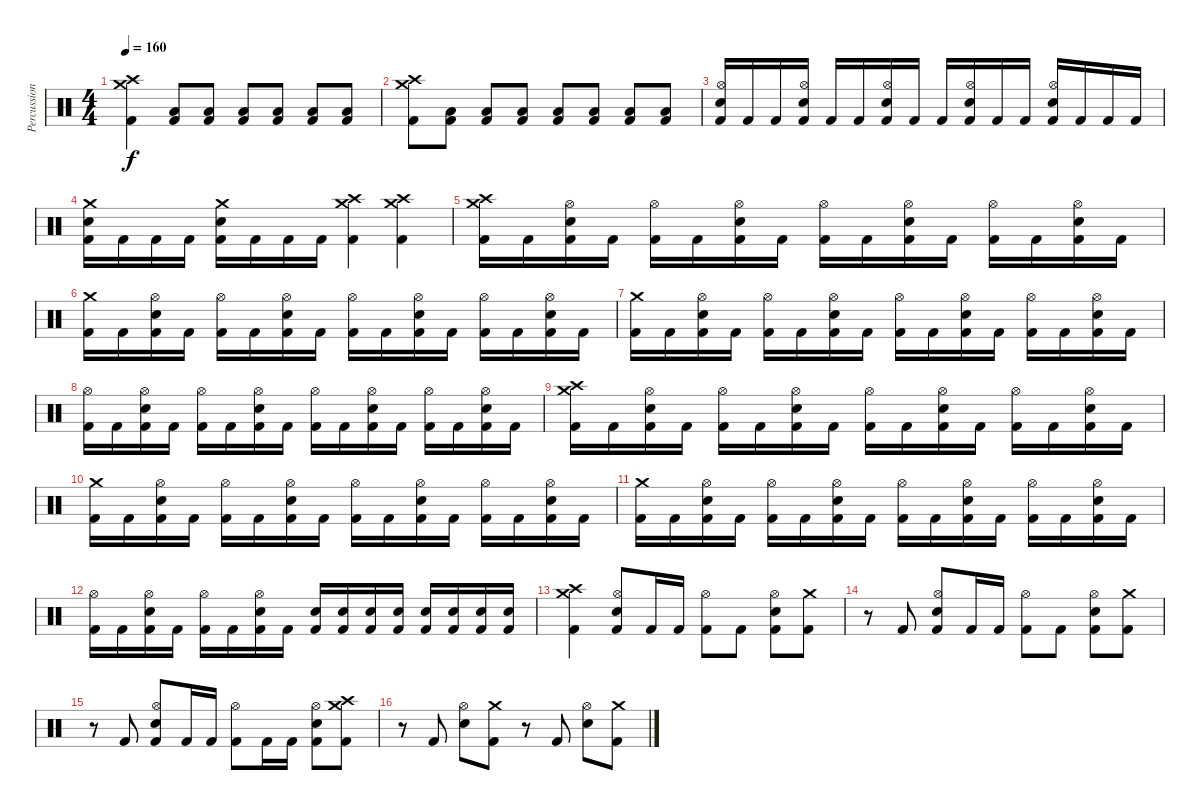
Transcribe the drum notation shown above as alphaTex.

\track ("Percussion" "Percussion") {instrument percussion}
\staff {score}
\articulation defaults
\ts (4 4)
\tempo 160
\clef neutral
\ks c
("Crash medium (hit)" "Crash high (hit)" "Kick (hit) 2").4{dy f} ("Low Floor Tom (hit)" "Kick (hit) 2").8 ("Low Floor Tom (hit)" "Kick (hit) 2").8 ("Low Floor Tom (hit)" "Kick (hit) 2").8 ("Low Floor Tom (hit)" "Kick (hit) 2").8 ("Low Floor Tom (hit)" "Kick (hit) 2").8 ("Low Floor Tom (hit)" "Kick (hit) 2").8 |
("Crash medium (hit)" "Crash high (hit)" "Kick (hit) 2").8 ("Low Floor Tom (hit)" "Kick (hit) 2").8 ("Low Floor Tom (hit)" "Kick (hit) 2").8 ("Low Floor Tom (hit)" "Kick (hit) 2").8 ("Low Floor Tom (hit)" "Kick (hit) 2").8 ("Low Floor Tom (hit)" "Kick (hit) 2").8 ("Low Floor Tom (hit)" "Kick (hit) 2").8 ("Low Floor Tom (hit)" "Kick (hit) 2").8 |
("Hi-Hat (open)" "Electric Snare (hit)" "Kick (hit) 2").16 "Kick (hit) 2".16 "Kick (hit) 2".16 ("Hi-Hat (open)" "Electric Snare (hit)" "Kick (hit) 2").16 "Kick (hit) 2".16 "Kick (hit) 2".16 ("Hi-Hat (open)" "Electric Snare (hit)" "Kick (hit) 2").16 "Kick (hit) 2".16 "Kick (hit) 2".16 ("Hi-Hat (open)" "Electric Snare (hit)" "Kick (hit) 2").16 "Kick (hit) 2".16 "Kick (hit) 2".16 ("Hi-Hat (open)" "Electric Snare (hit)" "Kick (hit) 2").16 "Kick (hit) 2".16 "Kick (hit) 2".16 "Kick (hit) 2".16 |
("Crash medium (hit)" "Electric Snare (hit)" "Kick (hit) 2").16 "Kick (hit) 2".16 "Kick (hit) 2".16 "Kick (hit) 2".16 ("Crash medium (hit)" "Electric Snare (hit)" "Kick (hit) 2").16 "Kick (hit) 2".16 "Kick (hit) 2".16 "Kick (hit) 2".16 ("Crash high (hit)" "Crash medium (hit)" "Kick (hit) 2").4 ("Crash high (hit)" "Crash medium (hit)" "Kick (hit) 2").4 |
("Crash high (hit)" "Crash medium (hit)" "Kick (hit) 2").16 "Kick (hit) 2".16 ("Hi-Hat (open)" "Electric Snare (hit)" "Kick (hit) 2").16 "Kick (hit) 2".16 ("Hi-Hat (open)" "Kick (hit) 2").16 "Kick (hit) 2".16 ("Hi-Hat (open)" "Electric Snare (hit)" "Kick (hit) 2").16 "Kick (hit) 2".16 ("Hi-Hat (open)" "Kick (hit) 2").16 "Kick (hit) 2".16 ("Hi-Hat (open)" "Electric Snare (hit)" "Kick (hit) 2").16 "Kick (hit) 2".16 ("Hi-Hat (open)" "Kick (hit) 2").16 "Kick (hit) 2".16 ("Hi-Hat (open)" "Electric Snare (hit)" "Kick (hit) 2").16 "Kick (hit) 2".16 |
("Crash medium (hit)" "Kick (hit) 2").16 "Kick (hit) 2".16 ("Hi-Hat (open)" "Electric Snare (hit)" "Kick (hit) 2").16 "Kick (hit) 2".16 ("Hi-Hat (open)" "Kick (hit) 2").16 "Kick (hit) 2".16 ("Hi-Hat (open)" "Electric Snare (hit)" "Kick (hit) 2").16 "Kick (hit) 2".16 ("Hi-Hat (open)" "Kick (hit) 2").16 "Kick (hit) 2".16 ("Hi-Hat (open)" "Electric Snare (hit)" "Kick (hit) 2").16 "Kick (hit) 2".16 ("Hi-Hat (open)" "Kick (hit) 2").16 "Kick (hit) 2".16 ("Hi-Hat (open)" "Electric Snare (hit)" "Kick (hit) 2").16 "Kick (hit) 2".16 |
("Crash medium (hit)" "Kick (hit) 2").16 "Kick (hit) 2".16 ("Hi-Hat (open)" "Electric Snare (hit)" "Kick (hit) 2").16 "Kick (hit) 2".16 ("Hi-Hat (open)" "Kick (hit) 2").16 "Kick (hit) 2".16 ("Hi-Hat (open)" "Electric Snare (hit)" "Kick (hit) 2").16 "Kick (hit) 2".16 ("Hi-Hat (open)" "Kick (hit) 2").16 "Kick (hit) 2".16 ("Hi-Hat (open)" "Electric Snare (hit)" "Kick (hit) 2").16 "Kick (hit) 2".16 ("Hi-Hat (open)" "Kick (hit) 2").16 "Kick (hit) 2".16 ("Hi-Hat (open)" "Electric Snare (hit)" "Kick (hit) 2").16 "Kick (hit) 2".16 |
("Hi-Hat (open)" "Kick (hit) 2").16 "Kick (hit) 2".16 ("Hi-Hat (open)" "Electric Snare (hit)" "Kick (hit) 2").16 "Kick (hit) 2".16 ("Hi-Hat (open)" "Kick (hit) 2").16 "Kick (hit) 2".16 ("Hi-Hat (open)" "Electric Snare (hit)" "Kick (hit) 2").16 "Kick (hit) 2".16 ("Hi-Hat (open)" "Kick (hit) 2").16 "Kick (hit) 2".16 ("Hi-Hat (open)" "Electric Snare (hit)" "Kick (hit) 2").16 "Kick (hit) 2".16 ("Hi-Hat (open)" "Kick (hit) 2").16 "Kick (hit) 2".16 ("Hi-Hat (open)" "Electric Snare (hit)" "Kick (hit) 2").16 "Kick (hit) 2".16 |
("Crash high (hit)" "Crash medium (hit)" "Kick (hit) 2").16 "Kick (hit) 2".16 ("Hi-Hat (open)" "Electric Snare (hit)" "Kick (hit) 2").16 "Kick (hit) 2".16 ("Hi-Hat (open)" "Kick (hit) 2").16 "Kick (hit) 2".16 ("Hi-Hat (open)" "Electric Snare (hit)" "Kick (hit) 2").16 "Kick (hit) 2".16 ("Hi-Hat (open)" "Kick (hit) 2").16 "Kick (hit) 2".16 ("Hi-Hat (open)" "Electric Snare (hit)" "Kick (hit) 2").16 "Kick (hit) 2".16 ("Hi-Hat (open)" "Kick (hit) 2").16 "Kick (hit) 2".16 ("Hi-Hat (open)" "Electric Snare (hit)" "Kick (hit) 2").16 "Kick (hit) 2".16 |
("Crash medium (hit)" "Kick (hit) 2").16 "Kick (hit) 2".16 ("Hi-Hat (open)" "Electric Snare (hit)" "Kick (hit) 2").16 "Kick (hit) 2".16 ("Hi-Hat (open)" "Kick (hit) 2").16 "Kick (hit) 2".16 ("Hi-Hat (open)" "Electric Snare (hit)" "Kick (hit) 2").16 "Kick (hit) 2".16 ("Hi-Hat (open)" "Kick (hit) 2").16 "Kick (hit) 2".16 ("Hi-Hat (open)" "Electric Snare (hit)" "Kick (hit) 2").16 "Kick (hit) 2".16 ("Hi-Hat (open)" "Kick (hit) 2").16 "Kick (hit) 2".16 ("Hi-Hat (open)" "Electric Snare (hit)" "Kick (hit) 2").16 "Kick (hit) 2".16 |
("Crash medium (hit)" "Kick (hit) 2").16 "Kick (hit) 2".16 ("Hi-Hat (open)" "Electric Snare (hit)" "Kick (hit) 2").16 "Kick (hit) 2".16 ("Hi-Hat (open)" "Kick (hit) 2").16 "Kick (hit) 2".16 ("Hi-Hat (open)" "Electric Snare (hit)" "Kick (hit) 2").16 "Kick (hit) 2".16 ("Hi-Hat (open)" "Kick (hit) 2").16 "Kick (hit) 2".16 ("Hi-Hat (open)" "Electric Snare (hit)" "Kick (hit) 2").16 "Kick (hit) 2".16 ("Hi-Hat (open)" "Kick (hit) 2").16 "Kick (hit) 2".16 ("Hi-Hat (open)" "Electric Snare (hit)" "Kick (hit) 2").16 "Kick (hit) 2".16 |
("Hi-Hat (open)" "Kick (hit) 2").16 "Kick (hit) 2".16 ("Hi-Hat (open)" "Electric Snare (hit)" "Kick (hit) 2").16 "Kick (hit) 2".16 ("Hi-Hat (open)" "Kick (hit) 2").16 "Kick (hit) 2".16 ("Hi-Hat (open)" "Electric Snare (hit)" "Kick (hit) 2").16 "Kick (hit) 2".16 ("Electric Snare (hit)" "Kick (hit) 2").16 ("Electric Snare (hit)" "Kick (hit) 2").16 ("Electric Snare (hit)" "Kick (hit) 2").16 ("Electric Snare (hit)" "Kick (hit) 2").16 ("Electric Snare (hit)" "Kick (hit) 2").16 ("Electric Snare (hit)" "Kick (hit) 2").16 ("Electric Snare (hit)" "Kick (hit) 2").16 ("Electric Snare (hit)" "Kick (hit) 2").16 |
("Crash medium (hit)" "Crash high (hit)" "Kick (hit) 2").4 ("Hi-Hat (open)" "Electric Snare (hit)" "Kick (hit) 2").8 "Kick (hit) 2".16 "Kick (hit) 2".16 ("Hi-Hat (open)" "Kick (hit) 2").8 "Kick (hit) 2".8 ("Hi-Hat (open)" "Electric Snare (hit)" "Kick (hit) 2").8 ("Crash medium (hit)" "Kick (hit) 2").8 |
r.8 "Kick (hit) 2".8 ("Hi-Hat (open)" "Electric Snare (hit)" "Kick (hit) 2").8 "Kick (hit) 2".16 "Kick (hit) 2".16 ("Hi-Hat (open)" "Kick (hit) 2").8 "Kick (hit) 2".8 ("Hi-Hat (open)" "Electric Snare (hit)" "Kick (hit) 2").8 ("Crash medium (hit)" "Kick (hit) 2").8 |
r.8 "Kick (hit) 2".8 ("Hi-Hat (open)" "Electric Snare (hit)" "Kick (hit) 2").8 "Kick (hit) 2".16 "Kick (hit) 2".16 ("Hi-Hat (open)" "Kick (hit) 2").8 "Kick (hit) 2".16 "Kick (hit) 2".16 ("Hi-Hat (open)" "Electric Snare (hit)" "Kick (hit) 2").8 ("Crash medium (hit)" "Crash high (hit)" "Kick (hit) 2").8 |
r.8 "Kick (hit) 2".8 ("Hi-Hat (open)" "Electric Snare (hit)").8 ("Crash medium (hit)" "Kick (hit) 2").8 r.8 "Kick (hit) 2".8 ("Hi-Hat (open)" "Electric Snare (hit)").8 ("Crash medium (hit)" "Kick (hit) 2").8
